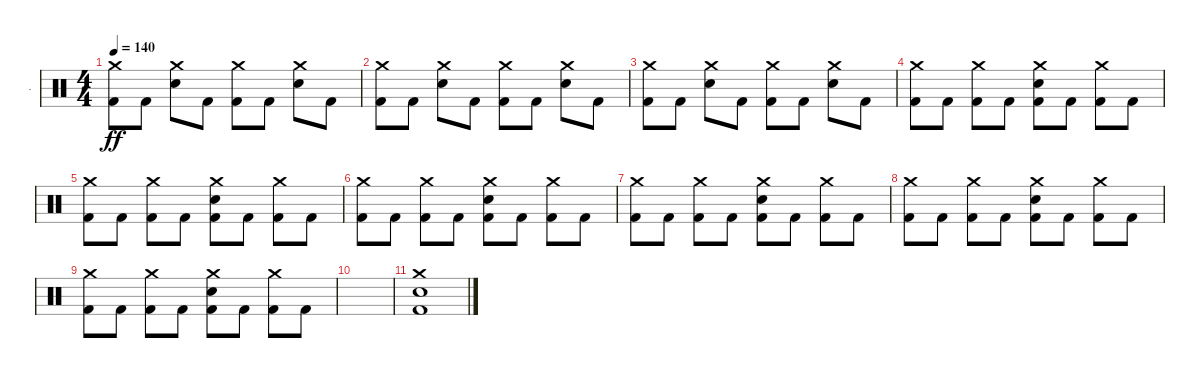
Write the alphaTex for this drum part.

\track ("." ".") {instrument percussion}
\staff {score}
\articulation defaults
\ts (4 4)
\tempo 140
\clef neutral
\ks c
("Crash medium (hit)" "Kick (hit) 2").8{dy ff} "Kick (hit) 2".8 ("Crash medium (hit)" "Electric Snare (hit)").8 "Kick (hit) 2".8 ("Crash medium (hit)" "Kick (hit) 2").8 "Kick (hit) 2".8 ("Crash medium (hit)" "Electric Snare (hit)").8 "Kick (hit) 2".8 |
("Crash medium (hit)" "Kick (hit) 2").8 "Kick (hit) 2".8 ("Crash medium (hit)" "Electric Snare (hit)").8 "Kick (hit) 2".8 ("Crash medium (hit)" "Kick (hit) 2").8 "Kick (hit) 2".8 ("Crash medium (hit)" "Electric Snare (hit)").8 "Kick (hit) 2".8 |
("Crash medium (hit)" "Kick (hit) 2").8 "Kick (hit) 2".8 ("Crash medium (hit)" "Electric Snare (hit)").8 "Kick (hit) 2".8 ("Crash medium (hit)" "Kick (hit) 2").8 "Kick (hit) 2".8 ("Crash medium (hit)" "Electric Snare (hit)").8 "Kick (hit) 2".8 |
("Crash medium (hit)" "Kick (hit) 2").8 "Kick (hit) 2".8 ("Crash medium (hit)" "Kick (hit) 2").8 "Kick (hit) 2".8 ("Crash medium (hit)" "Electric Snare (hit)" "Kick (hit) 2").8 "Kick (hit) 2".8 ("Crash medium (hit)" "Kick (hit) 2").8 "Kick (hit) 2".8 |
("Crash medium (hit)" "Kick (hit) 2").8 "Kick (hit) 2".8 ("Crash medium (hit)" "Kick (hit) 2").8 "Kick (hit) 2".8 ("Crash medium (hit)" "Electric Snare (hit)" "Kick (hit) 2").8 "Kick (hit) 2".8 ("Crash medium (hit)" "Kick (hit) 2").8 "Kick (hit) 2".8 |
("Crash medium (hit)" "Kick (hit) 2").8 "Kick (hit) 2".8 ("Crash medium (hit)" "Kick (hit) 2").8 "Kick (hit) 2".8 ("Crash medium (hit)" "Electric Snare (hit)" "Kick (hit) 2").8 "Kick (hit) 2".8 ("Crash medium (hit)" "Kick (hit) 2").8 "Kick (hit) 2".8 |
("Crash medium (hit)" "Kick (hit) 2").8 "Kick (hit) 2".8 ("Crash medium (hit)" "Kick (hit) 2").8 "Kick (hit) 2".8 ("Crash medium (hit)" "Electric Snare (hit)" "Kick (hit) 2").8 "Kick (hit) 2".8 ("Crash medium (hit)" "Kick (hit) 2").8 "Kick (hit) 2".8 |
("Crash medium (hit)" "Kick (hit) 2").8 "Kick (hit) 2".8 ("Crash medium (hit)" "Kick (hit) 2").8 "Kick (hit) 2".8 ("Crash medium (hit)" "Electric Snare (hit)" "Kick (hit) 2").8 "Kick (hit) 2".8 ("Crash medium (hit)" "Kick (hit) 2").8 "Kick (hit) 2".8 |
("Crash medium (hit)" "Kick (hit) 2").8 "Kick (hit) 2".8 ("Crash medium (hit)" "Kick (hit) 2").8 "Kick (hit) 2".8 ("Crash medium (hit)" "Electric Snare (hit)" "Kick (hit) 2").8 "Kick (hit) 2".8 ("Crash medium (hit)" "Kick (hit) 2").8 "Kick (hit) 2".8 |
|
("Crash medium (hit)" "Electric Snare (hit)" "Kick (hit) 2").1
